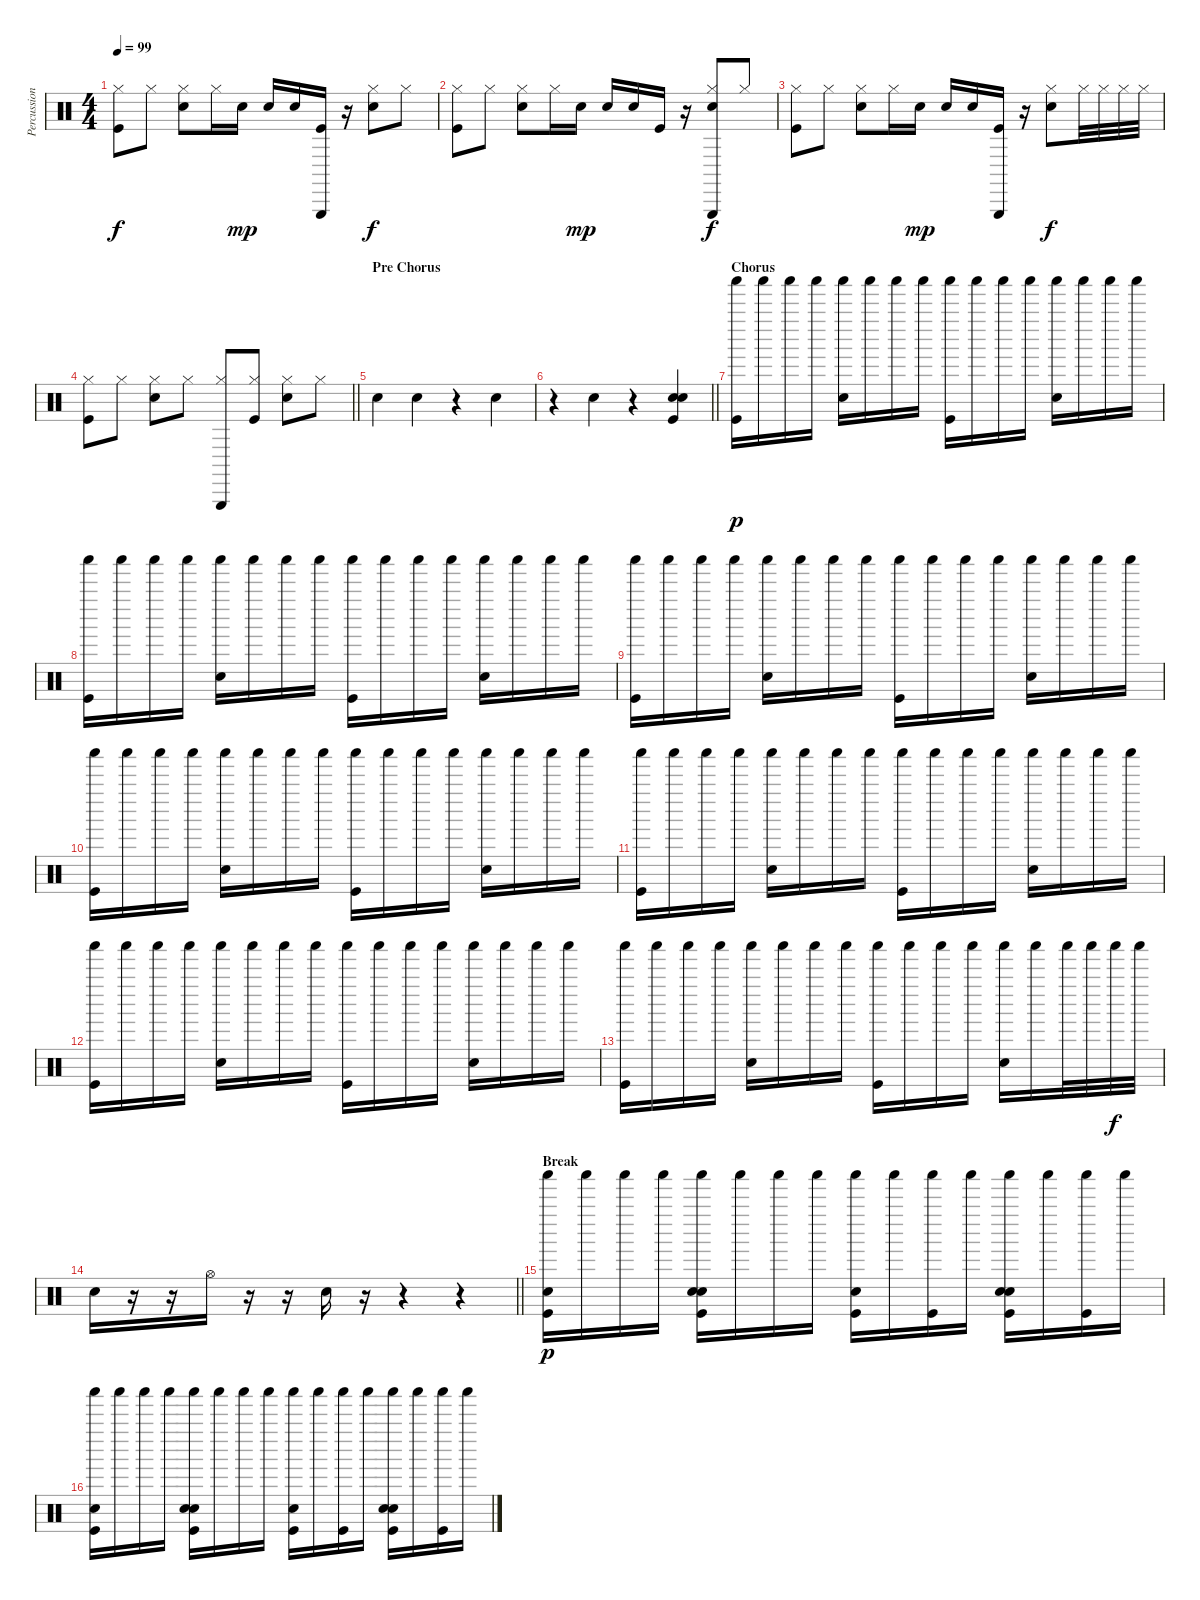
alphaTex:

\track ("Percussion" "Percussion") {instrument percussion}
\staff {score}
\articulation defaults
\ts (4 4)
\tempo 99
\clef neutral
\ks c
("Hi-Hat (closed)" "Kick (hit)").8{dy f} "Hi-Hat (closed)".8 ("Hi-Hat (closed)" "Snare (hit) 2").8 "Hi-Hat (closed)".16 "Electric Snare (hit)".16{dy mp} "Snare (hit) 2".16 "Electric Snare (hit)".16 ("Triangle (hit)" "Kick (hit)").16 r.16 ("Hi-Hat (closed)" "Snare (hit) 2").8{dy f} "Hi-Hat (closed)".8 |
("Hi-Hat (closed)" "Kick (hit)").8 "Hi-Hat (closed)".8 ("Hi-Hat (closed)" "Snare (hit) 2").8 "Hi-Hat (closed)".16 "Electric Snare (hit)".16{dy mp} "Snare (hit) 2".16 "Electric Snare (hit)".16 "Kick (hit)".16 r.16 ("Triangle (hit)" "Hi-Hat (closed)" "Snare (hit) 2").8{dy f} "Hi-Hat (closed)".8 |
("Hi-Hat (closed)" "Kick (hit)").8 "Hi-Hat (closed)".8 ("Hi-Hat (closed)" "Snare (hit) 2").8 "Hi-Hat (closed)".16 "Electric Snare (hit)".16{dy mp} "Snare (hit) 2".16 "Electric Snare (hit)".16 ("Triangle (hit)" "Kick (hit)").16 r.16 ("Hi-Hat (closed)" "Snare (hit) 2").8{dy f} "Hi-Hat (closed)".32 "Hi-Hat (closed)".32 "Hi-Hat (closed)".32 "Hi-Hat (closed)".32 |
\barLineRight lightlight
("Hi-Hat (closed)" "Kick (hit)").8 "Hi-Hat (closed)".8 ("Hi-Hat (closed)" "Snare (hit) 2").8 "Hi-Hat (closed)".8 ("Triangle (hit)" "Hi-Hat (closed)").8 ("Hi-Hat (closed)" "Kick (hit)").8 ("Hi-Hat (closed)" "Snare (hit) 2").8 "Hi-Hat (closed)".8 |
\section ("" "Pre Chorus")
"Snare (hit) 2".4 "Hand Clap (hit)".4 r.4 "Hand Clap (hit)".4 |
\barLineRight lightlight
r.4 "Hand Clap (hit)".4 r.4 ("Hand Clap (hit)" "Snare (hit) 2" "Kick (hit)").4 |
\section ("" "Chorus")
("Shaker (hit)" "Kick (hit)").16{dy p} "Shaker (hit)".16 "Shaker (hit)".16 "Shaker (hit)".16 ("Shaker (hit)" "Snare (hit) 2").16 "Shaker (hit)".16 "Shaker (hit)".16 "Shaker (hit)".16 ("Shaker (hit)" "Kick (hit)").16 "Shaker (hit)".16 "Shaker (hit)".16 "Shaker (hit)".16 ("Shaker (hit)" "Snare (hit) 2").16 "Shaker (hit)".16 "Shaker (hit)".16 "Shaker (hit)".16 |
("Shaker (hit)" "Kick (hit)").16 "Shaker (hit)".16 "Shaker (hit)".16 "Shaker (hit)".16 ("Shaker (hit)" "Snare (hit) 2").16 "Shaker (hit)".16 "Shaker (hit)".16 "Shaker (hit)".16 ("Shaker (hit)" "Kick (hit)").16 "Shaker (hit)".16 "Shaker (hit)".16 "Shaker (hit)".16 ("Shaker (hit)" "Snare (hit) 2").16 "Shaker (hit)".16 "Shaker (hit)".16 "Shaker (hit)".16 |
("Shaker (hit)" "Kick (hit)").16 "Shaker (hit)".16 "Shaker (hit)".16 "Shaker (hit)".16 ("Shaker (hit)" "Snare (hit) 2").16 "Shaker (hit)".16 "Shaker (hit)".16 "Shaker (hit)".16 ("Shaker (hit)" "Kick (hit)").16 "Shaker (hit)".16 "Shaker (hit)".16 "Shaker (hit)".16 ("Shaker (hit)" "Snare (hit) 2").16 "Shaker (hit)".16 "Shaker (hit)".16 "Shaker (hit)".16 |
("Shaker (hit)" "Kick (hit)").16 "Shaker (hit)".16 "Shaker (hit)".16 "Shaker (hit)".16 ("Shaker (hit)" "Snare (hit) 2").16 "Shaker (hit)".16 "Shaker (hit)".16 "Shaker (hit)".16 ("Shaker (hit)" "Kick (hit)").16 "Shaker (hit)".16 "Shaker (hit)".16 "Shaker (hit)".16 ("Shaker (hit)" "Snare (hit) 2").16 "Shaker (hit)".16 "Shaker (hit)".16 "Shaker (hit)".16 |
("Shaker (hit)" "Kick (hit)").16 "Shaker (hit)".16 "Shaker (hit)".16 "Shaker (hit)".16 ("Shaker (hit)" "Snare (hit) 2").16 "Shaker (hit)".16 "Shaker (hit)".16 "Shaker (hit)".16 ("Shaker (hit)" "Kick (hit)").16 "Shaker (hit)".16 "Shaker (hit)".16 "Shaker (hit)".16 ("Shaker (hit)" "Snare (hit) 2").16 "Shaker (hit)".16 "Shaker (hit)".16 "Shaker (hit)".16 |
("Shaker (hit)" "Kick (hit)").16 "Shaker (hit)".16 "Shaker (hit)".16 "Shaker (hit)".16 ("Shaker (hit)" "Snare (hit) 2").16 "Shaker (hit)".16 "Shaker (hit)".16 "Shaker (hit)".16 ("Shaker (hit)" "Kick (hit)").16 "Shaker (hit)".16 "Shaker (hit)".16 "Shaker (hit)".16 ("Shaker (hit)" "Snare (hit) 2").16 "Shaker (hit)".16 "Shaker (hit)".16 "Shaker (hit)".16 |
("Shaker (hit)" "Kick (hit)").16 "Shaker (hit)".16 "Shaker (hit)".16 "Shaker (hit)".16 ("Shaker (hit)" "Snare (hit) 2").16 "Shaker (hit)".16 "Shaker (hit)".16 "Shaker (hit)".16 ("Shaker (hit)" "Kick (hit)").16 "Shaker (hit)".16 "Shaker (hit)".16 "Shaker (hit)".16 ("Shaker (hit)" "Snare (hit) 2").16 "Shaker (hit)".16 "Shaker (hit)".32 "Shaker (hit)".32 "Shaker (hit)".32{dy f} "Shaker (hit)".32 |
\barLineRight lightlight "Snare (hit) 2".16
r.16 r.16 "Hi-Hat (open)".16 r.16 r.16 "Snare (hit) 2".16 r.16 r.4 r.4 |
\section ("" "Break")
("Shaker (hit)" "Snare (hit) 2" "Kick (hit)").16{dy p} "Shaker (hit)".16 "Shaker (hit)".16 "Shaker (hit)".16 ("Shaker (hit)" "Hand Clap (hit)" "Snare (hit) 2" "Kick (hit)").16 "Shaker (hit)".16 "Shaker (hit)".16 "Shaker (hit)".16 ("Shaker (hit)" "Snare (hit) 2" "Kick (hit)").16 "Shaker (hit)".16 ("Shaker (hit)" "Kick (hit)").16 "Shaker (hit)".16 ("Shaker (hit)" "Hand Clap (hit)" "Snare (hit) 2" "Kick (hit)").16 "Shaker (hit)".16 ("Shaker (hit)" "Kick (hit)").16 "Shaker (hit)".16 |
("Shaker (hit)" "Snare (hit) 2" "Kick (hit)").16 "Shaker (hit)".16 "Shaker (hit)".16 "Shaker (hit)".16 ("Shaker (hit)" "Hand Clap (hit)" "Snare (hit) 2" "Kick (hit)").16 "Shaker (hit)".16 "Shaker (hit)".16 "Shaker (hit)".16 ("Shaker (hit)" "Snare (hit) 2" "Kick (hit)").16 "Shaker (hit)".16 ("Shaker (hit)" "Kick (hit)").16 "Shaker (hit)".16 ("Shaker (hit)" "Hand Clap (hit)" "Snare (hit) 2" "Kick (hit)").16 "Shaker (hit)".16 ("Shaker (hit)" "Kick (hit)").16 "Shaker (hit)".16
